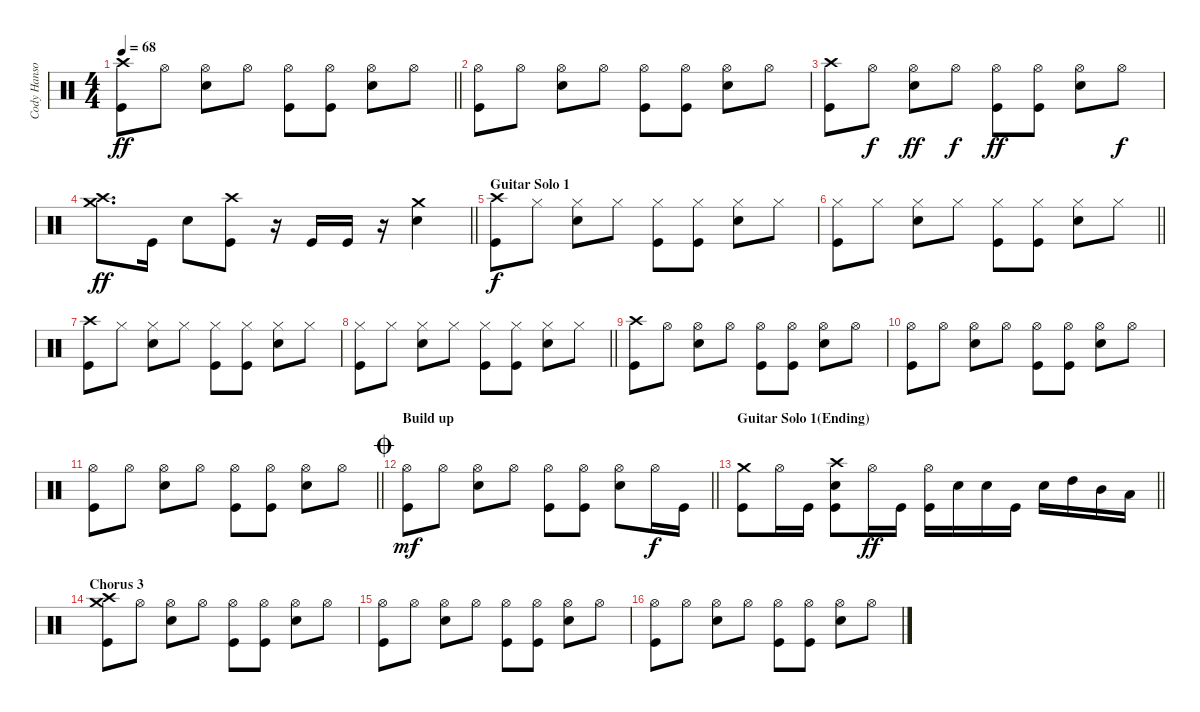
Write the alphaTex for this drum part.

\track ("Cody Hanson (Drums)" "Cody Hanso") {instrument percussion}
\staff {score}
\articulation defaults
\ts (4 4)
\tempo 68
\clef neutral
\barLineRight lightlight
\ks c
("Crash high (hit)" "Kick (hit)").8{dy ff} "Hi-Hat (open)".8 ("Hi-Hat (open)" "Snare (hit) 2").8 "Hi-Hat (open)".8 ("Hi-Hat (open)" "Kick (hit)").8 ("Hi-Hat (open)" "Kick (hit)").8 ("Hi-Hat (open)" "Snare (hit) 2").8 "Hi-Hat (open)".8 |
("Hi-Hat (open)" "Kick (hit)").8 "Hi-Hat (open)".8 ("Hi-Hat (open)" "Snare (hit) 2").8 "Hi-Hat (open)".8 ("Hi-Hat (open)" "Kick (hit)").8 ("Hi-Hat (open)" "Kick (hit)").8 ("Hi-Hat (open)" "Snare (hit) 2").8 "Hi-Hat (open)".8 |
("Crash high (hit)" "Kick (hit)").8 "Hi-Hat (open)".8{dy f} ("Hi-Hat (open)" "Snare (hit) 2").8{dy ff} "Hi-Hat (open)".8{dy f} ("Hi-Hat (open)" "Kick (hit)").8{dy ff} ("Hi-Hat (open)" "Kick (hit)").8 ("Hi-Hat (open)" "Snare (hit) 2").8 "Hi-Hat (open)".8{dy f} |
\barLineRight lightlight
("Crash high (hit)" "Crash medium (hit)").8{d dy ff} "Kick (hit)".16 "Snare (hit) 2".8 ("Crash high (hit)" "Kick (hit)").8 r.16 "Kick (hit)".16 "Kick (hit)".16 r.16 ("Crash medium (hit)" "Snare (hit) 2").4 |
\section ("" "Guitar Solo 1")
("Crash high (hit)" "Kick (hit)").8{dy f} "Hi-Hat (closed)".8 ("Hi-Hat (closed)" "Snare (hit) 2").8 "Hi-Hat (closed)".8 ("Hi-Hat (closed)" "Kick (hit)").8 ("Hi-Hat (closed)" "Kick (hit)").8 ("Hi-Hat (closed)" "Snare (hit) 2").8 "Hi-Hat (closed)".8 |
\barLineRight lightlight
("Hi-Hat (closed)" "Kick (hit)").8 "Hi-Hat (closed)".8 ("Hi-Hat (closed)" "Snare (hit) 2").8 "Hi-Hat (closed)".8 ("Hi-Hat (closed)" "Kick (hit)").8 ("Hi-Hat (closed)" "Kick (hit)").8 ("Hi-Hat (closed)" "Snare (hit) 2").8 "Hi-Hat (closed)".8 |
("Crash high (hit)" "Kick (hit)").8 "Hi-Hat (closed)".8 ("Hi-Hat (closed)" "Snare (hit) 2").8 "Hi-Hat (closed)".8 ("Hi-Hat (closed)" "Kick (hit)").8 ("Hi-Hat (closed)" "Kick (hit)").8 ("Hi-Hat (closed)" "Snare (hit) 2").8 "Hi-Hat (closed)".8 |
\barLineRight lightlight
("Hi-Hat (closed)" "Kick (hit)").8 "Hi-Hat (closed)".8 ("Hi-Hat (closed)" "Snare (hit) 2").8 "Hi-Hat (closed)".8 ("Hi-Hat (closed)" "Kick (hit)").8 ("Hi-Hat (closed)" "Kick (hit)").8 ("Hi-Hat (closed)" "Snare (hit) 2").8 "Hi-Hat (closed)".8 |
("Crash high (hit)" "Kick (hit)").8 "Hi-Hat (open)".8 ("Hi-Hat (open)" "Snare (hit) 2").8 "Hi-Hat (open)".8 ("Hi-Hat (open)" "Kick (hit)").8 ("Hi-Hat (open)" "Kick (hit)").8 ("Hi-Hat (open)" "Snare (hit) 2").8 "Hi-Hat (open)".8 |
("Hi-Hat (open)" "Kick (hit)").8 "Hi-Hat (open)".8 ("Hi-Hat (open)" "Snare (hit) 2").8 "Hi-Hat (open)".8 ("Hi-Hat (open)" "Kick (hit)").8 ("Hi-Hat (open)" "Kick (hit)").8 ("Hi-Hat (open)" "Snare (hit) 2").8 "Hi-Hat (open)".8 |
\barLineRight lightlight
("Hi-Hat (open)" "Kick (hit)").8 "Hi-Hat (open)".8 ("Hi-Hat (open)" "Snare (hit) 2").8 "Hi-Hat (open)".8 ("Hi-Hat (open)" "Kick (hit)").8 ("Hi-Hat (open)" "Kick (hit)").8 ("Hi-Hat (open)" "Snare (hit) 2").8 "Hi-Hat (open)".8 |
\section ("" "Build up")
\jump coda
\barLineRight lightlight
("Hi-Hat (open)" "Kick (hit)").8{dy mf} "Hi-Hat (open)".8 ("Hi-Hat (open)" "Snare (hit) 2").8 "Hi-Hat (open)".8 ("Hi-Hat (open)" "Kick (hit)").8 ("Hi-Hat (open)" "Kick (hit)").8 ("Hi-Hat (open)" "Snare (hit) 2").8 "Hi-Hat (open)".16{dy f} "Kick (hit)".16 |
\section ("" "Guitar Solo 1(Ending)")
\barLineRight lightlight
("Crash medium (hit)" "Kick (hit)").8 "Hi-Hat (open)".16 "Kick (hit)".16 ("Crash high (hit)" "Snare (hit) 2" "Kick (hit)").8 "Hi-Hat (open)".16{dy ff} "Kick (hit)".16 ("Hi-Hat (open)" "Kick (hit)").16 "Snare (hit) 2".16 "Snare (hit) 2".16 "Kick (hit)".16 "Snare (hit) 2".16 "High Tom (hit)".16 "Mid Tom (hit)".16 "Low Tom (hit)".16 |
\section ("" "Chorus 3")
("Crash high (hit)" "Crash medium (hit)" "Kick (hit)").8 "Hi-Hat (open)".8 ("Hi-Hat (open)" "Snare (hit) 2").8 "Hi-Hat (open)".8 ("Hi-Hat (open)" "Kick (hit)").8 ("Hi-Hat (open)" "Kick (hit)").8 ("Hi-Hat (open)" "Snare (hit) 2").8 "Hi-Hat (open)".8 |
("Hi-Hat (open)" "Kick (hit)").8 "Hi-Hat (open)".8 ("Hi-Hat (open)" "Snare (hit) 2").8 "Hi-Hat (open)".8 ("Hi-Hat (open)" "Kick (hit)").8 ("Hi-Hat (open)" "Kick (hit)").8 ("Hi-Hat (open)" "Snare (hit) 2").8 "Hi-Hat (open)".8 |
("Hi-Hat (open)" "Kick (hit)").8 "Hi-Hat (open)".8 ("Hi-Hat (open)" "Snare (hit) 2").8 "Hi-Hat (open)".8 ("Hi-Hat (open)" "Kick (hit)").8 ("Hi-Hat (open)" "Kick (hit)").8 ("Hi-Hat (open)" "Snare (hit) 2").8 "Hi-Hat (open)".8
